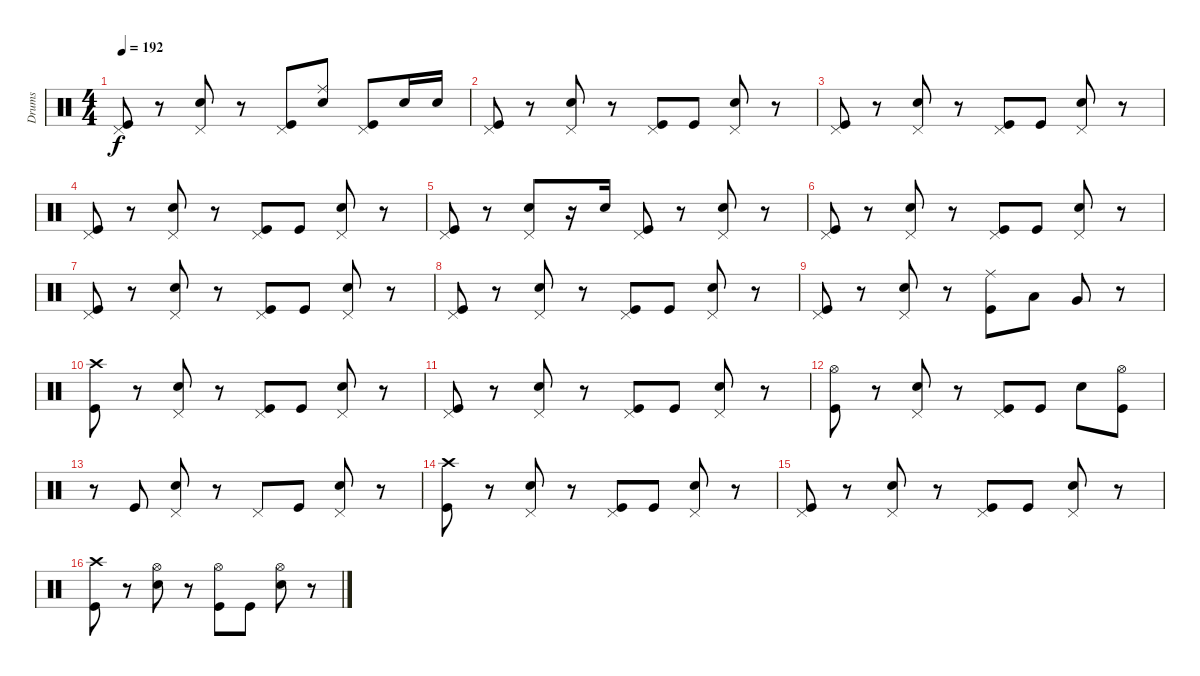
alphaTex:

\track ("Drums" "Drums") {instrument percussion}
\staff {score}
\articulation defaults
\ts (4 4)
\tempo 192
\clef neutral
\ks c
("Kick (hit)" "Pedal Hi-Hat (hit)").8{dy f} r.8 ("Electric Snare (hit)" "Pedal Hi-Hat (hit)").8 r.8 ("Kick (hit)" "Pedal Hi-Hat (hit)").8 ("Electric Snare (hit)" "Ride (middle)").8 ("Kick (hit)" "Pedal Hi-Hat (hit)").8 "Electric Snare (hit)".16 "Electric Snare (hit)".16 |
("Kick (hit)" "Pedal Hi-Hat (hit)").8 r.8 ("Electric Snare (hit)" "Pedal Hi-Hat (hit)").8 r.8 ("Kick (hit)" "Pedal Hi-Hat (hit)").8 "Kick (hit)".8 ("Electric Snare (hit)" "Pedal Hi-Hat (hit)").8 r.8 |
("Kick (hit)" "Pedal Hi-Hat (hit)").8 r.8 ("Electric Snare (hit)" "Pedal Hi-Hat (hit)").8 r.8 ("Kick (hit)" "Pedal Hi-Hat (hit)").8 "Kick (hit)".8 ("Electric Snare (hit)" "Pedal Hi-Hat (hit)").8 r.8 |
("Kick (hit)" "Pedal Hi-Hat (hit)").8 r.8 ("Electric Snare (hit)" "Pedal Hi-Hat (hit)").8 r.8 ("Kick (hit)" "Pedal Hi-Hat (hit)").8 "Kick (hit)".8 ("Electric Snare (hit)" "Pedal Hi-Hat (hit)").8 r.8 |
("Kick (hit)" "Pedal Hi-Hat (hit)").8 r.8 ("Electric Snare (hit)" "Pedal Hi-Hat (hit)").8 r.16 "Electric Snare (hit)".16 ("Kick (hit)" "Pedal Hi-Hat (hit)").8 r.8 ("Electric Snare (hit)" "Pedal Hi-Hat (hit)").8 r.8 |
("Kick (hit)" "Pedal Hi-Hat (hit)").8 r.8 ("Electric Snare (hit)" "Pedal Hi-Hat (hit)").8 r.8 ("Kick (hit)" "Pedal Hi-Hat (hit)").8 "Kick (hit)".8 ("Electric Snare (hit)" "Pedal Hi-Hat (hit)").8 r.8 |
("Kick (hit)" "Pedal Hi-Hat (hit)").8 r.8 ("Electric Snare (hit)" "Pedal Hi-Hat (hit)").8 r.8 ("Kick (hit)" "Pedal Hi-Hat (hit)").8 "Kick (hit)".8 ("Electric Snare (hit)" "Pedal Hi-Hat (hit)").8 r.8 |
("Kick (hit)" "Pedal Hi-Hat (hit)").8 r.8 ("Electric Snare (hit)" "Pedal Hi-Hat (hit)").8 r.8 ("Kick (hit)" "Pedal Hi-Hat (hit)").8 "Kick (hit)".8 ("Electric Snare (hit)" "Pedal Hi-Hat (hit)").8 r.8 |
("Kick (hit)" "Pedal Hi-Hat (hit)").8 r.8 ("Electric Snare (hit)" "Pedal Hi-Hat (hit)").8 r.8 ("Kick (hit)" "Ride (middle)").8 "Low Tom (hit)".8 "Very Low Tom (hit)".8 r.8 |
("Kick (hit)" "Crash high (hit)").8 r.8 ("Electric Snare (hit)" "Pedal Hi-Hat (hit)").8 r.8 ("Kick (hit)" "Pedal Hi-Hat (hit)").8 "Kick (hit)".8 ("Electric Snare (hit)" "Pedal Hi-Hat (hit)").8 r.8 |
("Kick (hit)" "Pedal Hi-Hat (hit)").8 r.8 ("Electric Snare (hit)" "Pedal Hi-Hat (hit)").8 r.8 ("Kick (hit)" "Pedal Hi-Hat (hit)").8 "Kick (hit)".8 ("Electric Snare (hit)" "Pedal Hi-Hat (hit)").8 r.8 |
("Kick (hit)" "Hi-Hat (open)").8 r.8 ("Electric Snare (hit)" "Pedal Hi-Hat (hit)").8 r.8 ("Kick (hit)" "Pedal Hi-Hat (hit)").8 "Kick (hit)".8 "Electric Snare (hit)".8 ("Kick (hit)" "Hi-Hat (open)").8 |
r.8 "Kick (hit)".8 ("Electric Snare (hit)" "Pedal Hi-Hat (hit)").8 r.8 "Pedal Hi-Hat (hit)".8 "Kick (hit)".8 ("Electric Snare (hit)" "Pedal Hi-Hat (hit)").8 r.8 |
("Kick (hit)" "Crash high (hit)").8 r.8 ("Electric Snare (hit)" "Pedal Hi-Hat (hit)").8 r.8 ("Kick (hit)" "Pedal Hi-Hat (hit)").8 "Kick (hit)".8 ("Electric Snare (hit)" "Pedal Hi-Hat (hit)").8 r.8 |
("Kick (hit)" "Pedal Hi-Hat (hit)").8 r.8 ("Electric Snare (hit)" "Pedal Hi-Hat (hit)").8 r.8 ("Kick (hit)" "Pedal Hi-Hat (hit)").8 "Kick (hit)".8 ("Electric Snare (hit)" "Pedal Hi-Hat (hit)").8 r.8 |
("Kick (hit)" "Crash high (hit)").8 r.8 ("Electric Snare (hit)" "Hi-Hat (open)").8 r.8 ("Kick (hit)" "Hi-Hat (open)").8 "Kick (hit)".8 ("Electric Snare (hit)" "Hi-Hat (open)").8 r.8
